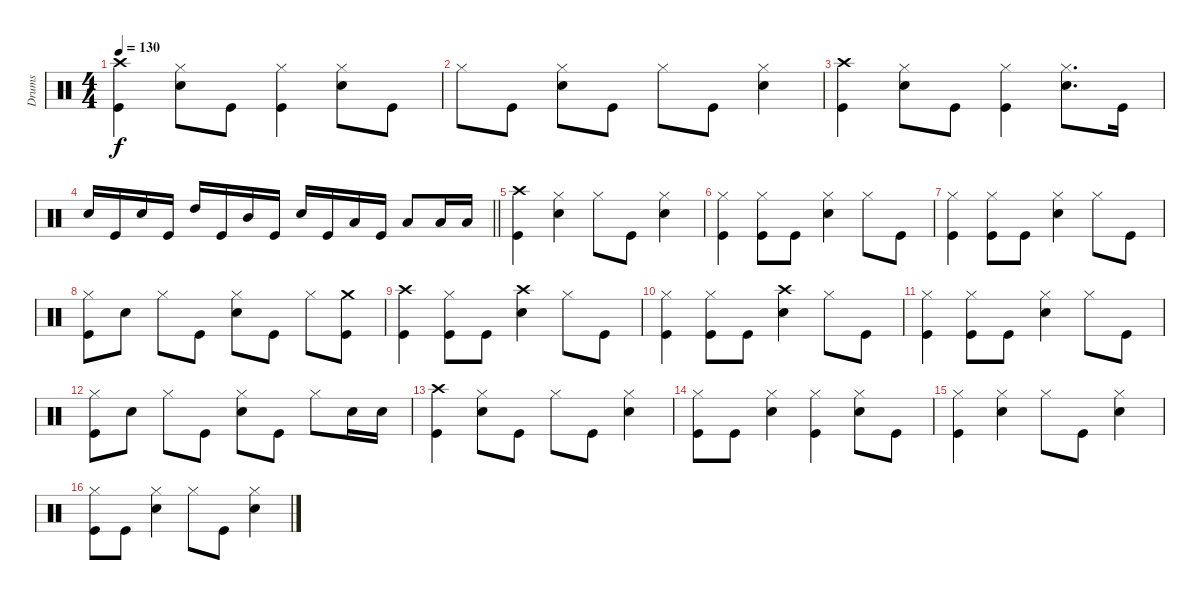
\track ("Drums" "Drums") {instrument percussion}
\staff {score}
\articulation defaults
\ts (4 4)
\tempo 130
\clef neutral
\ks c
("Crash high (hit)" "Kick (hit)").4{dy f} ("Hi-Hat (closed)" "Snare (hit) 2").8 "Kick (hit)".8 ("Hi-Hat (closed)" "Kick (hit)").4 ("Hi-Hat (closed)" "Snare (hit) 2").8 "Kick (hit)".8 |
"Hi-Hat (closed)".8 "Kick (hit)".8 ("Hi-Hat (closed)" "Snare (hit) 2").8 "Kick (hit)".8 "Hi-Hat (closed)".8 "Kick (hit)".8 ("Hi-Hat (closed)" "Snare (hit) 2").4 |
("Crash high (hit)" "Kick (hit)").4 ("Hi-Hat (closed)" "Snare (hit) 2").8 "Kick (hit)".8 ("Hi-Hat (closed)" "Kick (hit)").4 ("Hi-Hat (closed)" "Snare (hit) 2").8{d} "Kick (hit)".16 |
\barLineRight lightlight "Snare (hit) 2".16 "Kick (hit)".16 "Snare (hit) 2".16 "Kick (hit)".16 "High Tom (hit)".16 "Kick (hit)".16 "Mid Tom (hit)".16 "Kick (hit)".16 "Snare (hit) 2".16 "Kick (hit)".16 "Low Tom (hit)".16 "Kick (hit)".16 "Low Tom (hit)".8 "Low Tom (hit)".16 "Low Tom (hit)".16
|
("Crash high (hit)" "Kick (hit)").4 ("Hi-Hat (closed)" "Snare (hit) 2").4 "Hi-Hat (closed)".8 "Kick (hit)".8 ("Hi-Hat (closed)" "Snare (hit) 2").4 |
("Hi-Hat (closed)" "Kick (hit)").4 ("Hi-Hat (closed)" "Kick (hit)").8 "Kick (hit)".8 ("Hi-Hat (closed)" "Snare (hit) 2").4 "Hi-Hat (closed)".8 "Kick (hit)".8 |
("Hi-Hat (closed)" "Kick (hit)").4 ("Hi-Hat (closed)" "Kick (hit)").8 "Kick (hit)".8 ("Hi-Hat (closed)" "Snare (hit) 2").4 "Hi-Hat (closed)".8 "Kick (hit)".8 |
("Hi-Hat (closed)" "Kick (hit)").8 "Snare (hit) 2".8 "Hi-Hat (closed)".8 "Kick (hit)".8 ("Hi-Hat (closed)" "Snare (hit) 2").8 "Kick (hit)".8 "Hi-Hat (closed)".8 ("Crash medium (hit)" "Kick (hit)").8 |
("Crash high (hit)" "Kick (hit)").4 ("Hi-Hat (closed)" "Kick (hit)").8 "Kick (hit)".8 ("Crash high (hit)" "Snare (hit) 2").4 "Hi-Hat (closed)".8 "Kick (hit)".8 |
("Hi-Hat (closed)" "Kick (hit)").4 ("Hi-Hat (closed)" "Kick (hit)").8 "Kick (hit)".8 ("Crash high (hit)" "Snare (hit) 2").4 "Hi-Hat (closed)".8 "Kick (hit)".8 |
("Hi-Hat (closed)" "Kick (hit)").4 ("Hi-Hat (closed)" "Kick (hit)").8 "Kick (hit)".8 ("Hi-Hat (closed)" "Snare (hit) 2").4 "Hi-Hat (closed)".8 "Kick (hit)".8 |
("Hi-Hat (closed)" "Kick (hit)").8 "Snare (hit) 2".8 "Hi-Hat (closed)".8 "Kick (hit)".8 ("Hi-Hat (closed)" "Snare (hit) 2").8 "Kick (hit)".8 "Hi-Hat (closed)".8 "Snare (hit) 2".16 "Snare (hit) 2".16 |
("Crash high (hit)" "Kick (hit)").4 ("Hi-Hat (closed)" "Snare (hit) 2").8 "Kick (hit)".8 "Hi-Hat (closed)".8 "Kick (hit)".8 ("Hi-Hat (closed)" "Snare (hit) 2").4 |
("Hi-Hat (closed)" "Kick (hit)").8 "Kick (hit)".8 ("Hi-Hat (closed)" "Snare (hit) 2").4 ("Hi-Hat (closed)" "Kick (hit)").4 ("Hi-Hat (closed)" "Snare (hit) 2").8 "Kick (hit)".8 |
("Hi-Hat (closed)" "Kick (hit)").4 ("Hi-Hat (closed)" "Snare (hit) 2").4 "Hi-Hat (closed)".8 "Kick (hit)".8 ("Hi-Hat (closed)" "Snare (hit) 2").4 |
("Hi-Hat (closed)" "Kick (hit)").8 "Kick (hit)".8 ("Hi-Hat (closed)" "Snare (hit) 2").4 "Hi-Hat (closed)".8 "Kick (hit)".8 ("Hi-Hat (closed)" "Snare (hit) 2").4
